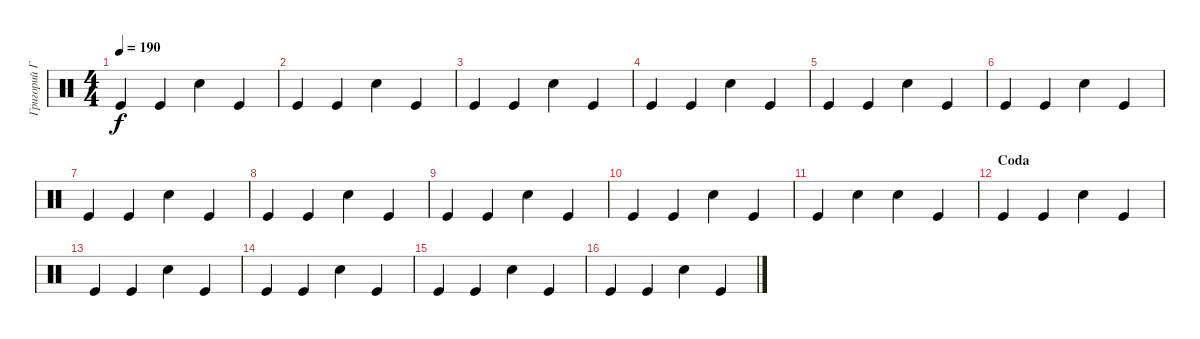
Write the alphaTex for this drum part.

\track ("Григорий Габерман" "Григорий Г") {instrument percussion}
\staff {score}
\articulation defaults
\ts (4 4)
\tempo 190
\clef neutral
\ks c "Kick (hit)".4{dy f} "Kick (hit)".4 "Snare (hit) 2".4 "Kick (hit)".4
|
"Kick (hit)".4 "Kick (hit)".4 "Snare (hit) 2".4 "Kick (hit)".4 |
"Kick (hit)".4 "Kick (hit)".4 "Snare (hit) 2".4 "Kick (hit)".4 |
"Kick (hit)".4 "Kick (hit)".4 "Snare (hit) 2".4 "Kick (hit)".4 |
"Kick (hit)".4 "Kick (hit)".4 "Snare (hit) 2".4 "Kick (hit)".4 |
"Kick (hit)".4 "Kick (hit)".4 "Snare (hit) 2".4 "Kick (hit)".4 |
"Kick (hit)".4 "Kick (hit)".4 "Snare (hit) 2".4 "Kick (hit)".4 |
"Kick (hit)".4 "Kick (hit)".4 "Snare (hit) 2".4 "Kick (hit)".4 |
"Kick (hit)".4 "Kick (hit)".4 "Snare (hit) 2".4 "Kick (hit)".4 |
"Kick (hit)".4 "Kick (hit)".4 "Snare (hit) 2".4 "Kick (hit)".4 |
"Kick (hit)".4 "Snare (hit) 2".4 "Snare (hit) 2".4 "Kick (hit)".4 |
\section ("" "Coda ")
"Kick (hit)".4 "Kick (hit)".4 "Snare (hit) 2".4 "Kick (hit)".4 |
"Kick (hit)".4 "Kick (hit)".4 "Snare (hit) 2".4 "Kick (hit)".4 |
"Kick (hit)".4 "Kick (hit)".4 "Snare (hit) 2".4 "Kick (hit)".4 |
"Kick (hit)".4 "Kick (hit)".4 "Snare (hit) 2".4 "Kick (hit)".4 |
"Kick (hit)".4 "Kick (hit)".4 "Snare (hit) 2".4 "Kick (hit)".4
